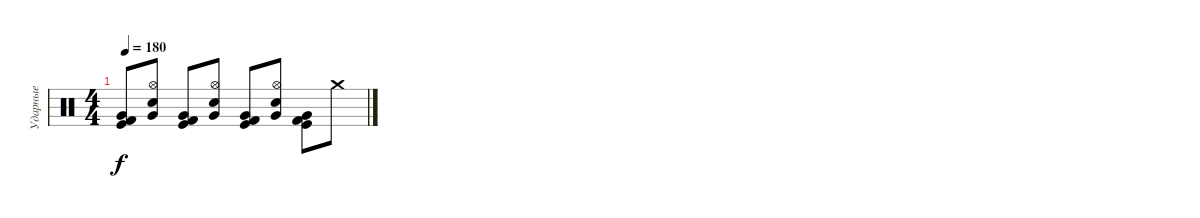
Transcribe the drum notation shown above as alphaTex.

\track ("Ударные" "Ударные") {instrument percussion}
\staff {score}
\articulation defaults
\ts (4 4)
\tempo 180
\clef neutral
\ks c
("Very Low Tom (hit)" "Kick (hit) 2" "Kick (hit)").8{dy f} ("Very Low Tom (hit)" "Hi-Hat (open)" "Electric Snare (hit)").8 ("Very Low Tom (hit)" "Kick (hit)" "Kick (hit) 2").8 ("Very Low Tom (hit)" "Hi-Hat (open)" "Electric Snare (hit)").8 ("Very Low Tom (hit)" "Kick (hit) 2" "Kick (hit)").8 ("Very Low Tom (hit)" "Hi-Hat (open)" "Electric Snare (hit)").8 ("Very Low Tom (hit)" "Kick (hit) 2" "Kick (hit)").8 "Crash medium (hit)".8
